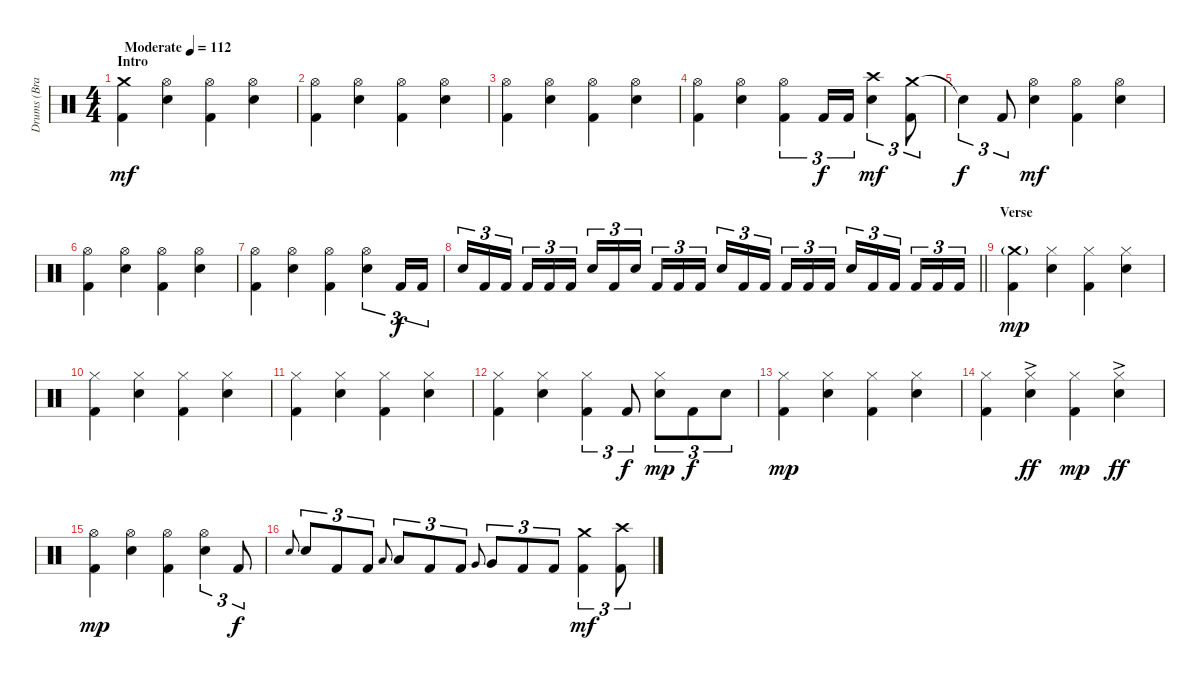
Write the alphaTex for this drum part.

\track ("Drums (Brandon Saller)" "Drums (Bra") {instrument percussion}
\staff {score}
\articulation defaults
\ts (4 4)
\section ("" "Intro")
\tempo (112 "Moderate")
\clef neutral
\ks c
("Crash medium (hit)" "Kick (hit) 2").4{dy mf} ("Hi-Hat (open)" "Electric Snare (hit)").4 ("Hi-Hat (open)" "Kick (hit) 2").4 ("Hi-Hat (open)" "Electric Snare (hit)").4 |
("Hi-Hat (open)" "Kick (hit) 2").4 ("Hi-Hat (open)" "Electric Snare (hit)").4 ("Hi-Hat (open)" "Kick (hit) 2").4 ("Hi-Hat (open)" "Electric Snare (hit)").4 |
("Hi-Hat (open)" "Kick (hit) 2").4 ("Hi-Hat (open)" "Electric Snare (hit)").4 ("Hi-Hat (open)" "Kick (hit) 2").4 ("Hi-Hat (open)" "Electric Snare (hit)").4 |
("Hi-Hat (open)" "Kick (hit) 2").4 ("Hi-Hat (open)" "Electric Snare (hit)").4 ("Hi-Hat (open)" "Kick (hit) 2").4{tu (3 2)} "Kick (hit) 2".16{tu (3 2) dy f} "Kick (hit) 2".16{tu (3 2)} ("Crash high (hit)" "Electric Snare (hit)").4{tu (3 2) dy mf} ("Crash medium (hit)" "Kick (hit) 2").8{tu (3 2)} |
"Snare (hit)"{t}.4{tu (3 2) dy f} "Kick (hit) 2".8{tu (3 2)} ("Hi-Hat (open)" "Electric Snare (hit)").4{dy mf} ("Hi-Hat (open)" "Kick (hit) 2").4 ("Hi-Hat (open)" "Electric Snare (hit)").4 |
("Hi-Hat (open)" "Kick (hit) 2").4 ("Hi-Hat (open)" "Electric Snare (hit)").4 ("Hi-Hat (open)" "Kick (hit) 2").4 ("Hi-Hat (open)" "Electric Snare (hit)").4 |
("Hi-Hat (open)" "Kick (hit) 2").4 ("Hi-Hat (open)" "Electric Snare (hit)").4 ("Hi-Hat (open)" "Kick (hit) 2").4 ("Hi-Hat (open)" "Electric Snare (hit)").4{tu (3 2)} "Kick (hit) 2".16{tu (3 2) dy f} "Kick (hit) 2".16{tu (3 2)} |
\barLineRight lightlight "Electric Snare (hit)".16{tu (3 2)} "Kick (hit) 2".16{tu (3 2)} "Kick (hit) 2".16{tu (3 2) beam splitsecondary} "Kick (hit) 2".16{tu (3 2)} "Kick (hit) 2".16{tu (3 2)} "Kick (hit) 2".16{tu (3 2)} "Electric Snare (hit)".16{tu (3 2)} "Kick (hit) 2".16{tu (3 2)} "Electric Snare (hit)".16{tu (3 2) beam splitsecondary} "Kick (hit) 2".16{tu (3 2)} "Kick (hit) 2".16{tu (3 2)} "Kick (hit) 2".16{tu (3 2)} "Electric Snare (hit)".16{tu (3 2)} "Kick (hit) 2".16{tu (3 2)} "Kick (hit) 2".16{tu (3 2) beam splitsecondary} "Kick (hit) 2".16{tu (3 2)} "Kick (hit) 2".16{tu (3 2)} "Kick (hit) 2".16{tu (3 2)} "Electric Snare (hit)".16{tu (3 2)} "Kick (hit) 2".16{tu (3 2)} "Kick (hit) 2".16{tu (3 2) beam splitsecondary} "Kick (hit) 2".16{tu (3 2)} "Kick (hit) 2".16{tu (3 2)} "Kick (hit) 2".16{tu (3 2)}
|
\section ("" "Verse")
("Crash medium (hit)"{g} "Kick (hit) 2").4{dy mp} ("Hi-Hat (closed)" "Electric Snare (hit)").4 ("Hi-Hat (closed)" "Kick (hit) 2").4 ("Hi-Hat (closed)" "Electric Snare (hit)").4 |
("Hi-Hat (closed)" "Kick (hit) 2").4 ("Hi-Hat (closed)" "Electric Snare (hit)").4 ("Hi-Hat (closed)" "Kick (hit) 2").4 ("Hi-Hat (closed)" "Electric Snare (hit)").4 |
("Hi-Hat (closed)" "Kick (hit) 2").4 ("Hi-Hat (closed)" "Electric Snare (hit)").4 ("Hi-Hat (closed)" "Kick (hit) 2").4 ("Hi-Hat (closed)" "Electric Snare (hit)").4 |
("Hi-Hat (closed)" "Kick (hit) 2").4 ("Hi-Hat (closed)" "Electric Snare (hit)").4 ("Hi-Hat (closed)" "Kick (hit) 2").4{tu (3 2)} "Kick (hit) 2".8{tu (3 2) dy f} ("Hi-Hat (closed)" "Electric Snare (hit)").8{tu (3 2) dy mp} "Kick (hit) 2".8{tu (3 2) dy f} "Electric Snare (hit)".8{tu (3 2)} |
("Hi-Hat (closed)" "Kick (hit) 2").4{dy mp} ("Hi-Hat (closed)" "Electric Snare (hit)").4 ("Hi-Hat (closed)" "Kick (hit) 2").4 ("Hi-Hat (closed)" "Electric Snare (hit)").4 |
("Hi-Hat (closed)" "Kick (hit) 2").4 ("Hi-Hat (closed)" "Electric Snare (hit)"{ac}).4{dy ff} ("Hi-Hat (closed)" "Kick (hit) 2").4{dy mp} ("Hi-Hat (closed)" "Electric Snare (hit)"{ac}).4{dy ff} |
("Hi-Hat (open)" "Kick (hit) 2").4{dy mp} ("Hi-Hat (open)" "Electric Snare (hit)").4 ("Hi-Hat (open)" "Kick (hit) 2").4 ("Hi-Hat (open)" "Electric Snare (hit)").4{tu (3 2)} "Kick (hit) 2".8{tu (3 2) dy f} |
"Electric Snare (hit)".8{gr onbeat} "Electric Snare (hit)".8{tu (3 2)} "Kick (hit) 2".8{tu (3 2)} "Kick (hit) 2".8{tu (3 2)} "Low Tom (hit)".8{gr onbeat} "Low Tom (hit)".8{tu (3 2)} "Kick (hit) 2".8{tu (3 2)} "Kick (hit) 2".8{tu (3 2)} "Very Low Tom (hit)".8{gr onbeat} "Very Low Tom (hit)".8{tu (3 2)} "Kick (hit) 2".8{tu (3 2)} "Kick (hit) 2".8{tu (3 2)} ("Crash medium (hit)" "Kick (hit) 2").4{tu (3 2) dy mf} ("Crash high (hit)" "Kick (hit) 2").8{tu (3 2)}
